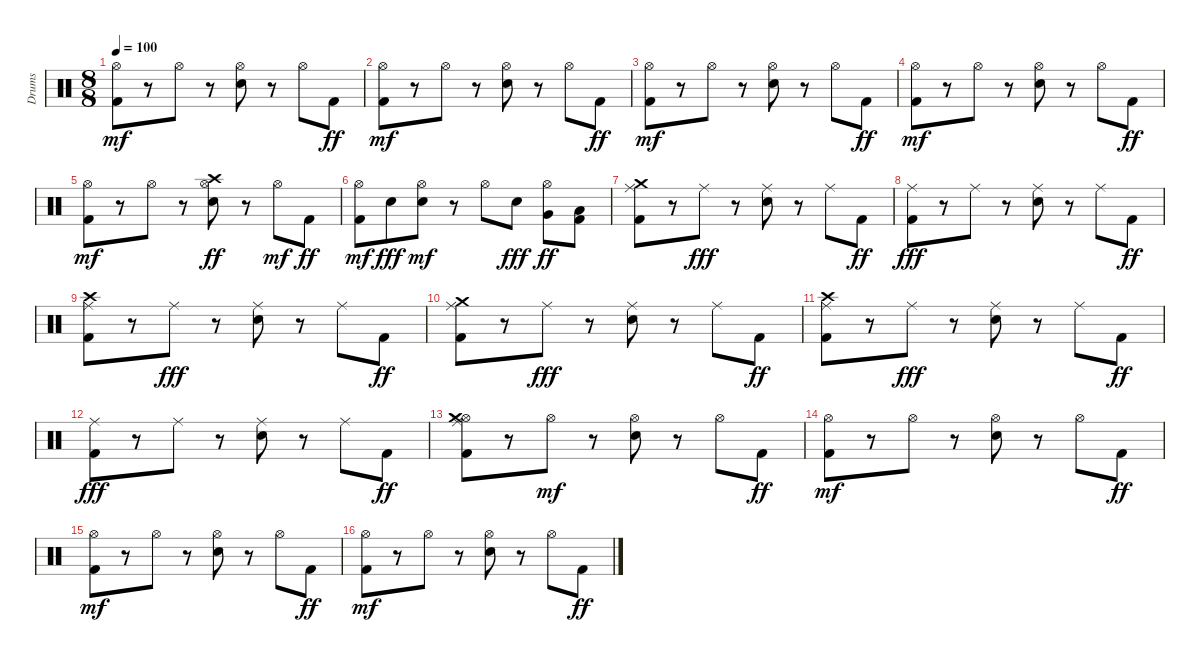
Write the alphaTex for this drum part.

\track ("Drums" "Drums") {instrument percussion}
\staff {score}
\articulation defaults
\ts (8 8)
\tempo 100
\clef neutral
\ks c
("Kick (hit) 2" "Hi-Hat (open)").8{dy mf} r.8 "Hi-Hat (open)".8 r.8 ("Snare (hit) 2" "Hi-Hat (open)").8 r.8 "Hi-Hat (open)".8 "Kick (hit) 2".8{dy ff} |
("Kick (hit) 2" "Hi-Hat (open)").8{dy mf} r.8 "Hi-Hat (open)".8 r.8 ("Snare (hit) 2" "Hi-Hat (open)").8 r.8 "Hi-Hat (open)".8 "Kick (hit) 2".8{dy ff} |
("Kick (hit) 2" "Hi-Hat (open)").8{dy mf} r.8 "Hi-Hat (open)".8 r.8 ("Snare (hit) 2" "Hi-Hat (open)").8 r.8 "Hi-Hat (open)".8 "Kick (hit) 2".8{dy ff} |
("Kick (hit) 2" "Hi-Hat (open)").8{dy mf} r.8 "Hi-Hat (open)".8 r.8 ("Snare (hit) 2" "Hi-Hat (open)").8 r.8 "Hi-Hat (open)".8 "Kick (hit) 2".8{dy ff} |
("Kick (hit) 2" "Hi-Hat (open)").8{dy mf} r.8 "Hi-Hat (open)".8 r.8 ("Snare (hit) 2" "Hi-Hat (open)" "Crash high (hit)").8{dy ff} r.8 "Hi-Hat (open)".8{dy mf} "Kick (hit) 2".8{dy ff} |
("Kick (hit) 2" "Hi-Hat (open)").8{dy mf} "Snare (hit) 2".8{dy fff} ("Snare (hit) 2" "Hi-Hat (open)").8{dy mf} r.8 "Hi-Hat (open)".8 "Snare (hit) 2".8{dy fff} ("Hi-Hat (open)" "Very Low Tom (hit)").8{dy ff} ("Kick (hit) 2" "Low Floor Tom (hit)").8 |
("Kick (hit) 2" "Ride (middle)" "Crash medium (hit)").8 r.8 "Ride (middle)".8{dy fff} r.8 ("Snare (hit) 2" "Ride (middle)").8 r.8 "Ride (middle)".8 "Kick (hit) 2".8{dy ff} |
("Kick (hit) 2" "Ride (middle)").8{dy fff} r.8 "Ride (middle)".8 r.8 ("Snare (hit) 2" "Ride (middle)").8 r.8 "Ride (middle)".8 "Kick (hit) 2".8{dy ff} |
("Kick (hit) 2" "Ride (middle)" "Crash high (hit)").8 r.8 "Ride (middle)".8{dy fff} r.8 ("Snare (hit) 2" "Ride (middle)").8 r.8 "Ride (middle)".8 "Kick (hit) 2".8{dy ff} |
("Kick (hit) 2" "Ride (middle)" "Crash medium (hit)").8 r.8 "Ride (middle)".8{dy fff} r.8 ("Snare (hit) 2" "Ride (middle)").8 r.8 "Ride (middle)".8 "Kick (hit) 2".8{dy ff} |
("Kick (hit) 2" "Ride (middle)" "Crash high (hit)").8 r.8 "Ride (middle)".8{dy fff} r.8 ("Snare (hit) 2" "Ride (middle)").8 r.8 "Ride (middle)".8 "Kick (hit) 2".8{dy ff} |
("Kick (hit) 2" "Ride (middle)").8{dy fff} r.8 "Ride (middle)".8 r.8 ("Snare (hit) 2" "Ride (middle)").8 r.8 "Ride (middle)".8 "Kick (hit) 2".8{dy ff} |
("Kick (hit) 2" "Hi-Hat (open)" "Ride (middle)" "Crash medium (hit)").8 r.8 "Hi-Hat (open)".8{dy mf} r.8 ("Snare (hit) 2" "Hi-Hat (open)").8 r.8 "Hi-Hat (open)".8 "Kick (hit) 2".8{dy ff} |
("Kick (hit) 2" "Hi-Hat (open)").8{dy mf} r.8 "Hi-Hat (open)".8 r.8 ("Snare (hit) 2" "Hi-Hat (open)").8 r.8 "Hi-Hat (open)".8 "Kick (hit) 2".8{dy ff} |
("Kick (hit) 2" "Hi-Hat (open)").8{dy mf} r.8 "Hi-Hat (open)".8 r.8 ("Snare (hit) 2" "Hi-Hat (open)").8 r.8 "Hi-Hat (open)".8 "Kick (hit) 2".8{dy ff} |
("Kick (hit) 2" "Hi-Hat (open)").8{dy mf} r.8 "Hi-Hat (open)".8 r.8 ("Snare (hit) 2" "Hi-Hat (open)").8 r.8 "Hi-Hat (open)".8 "Kick (hit) 2".8{dy ff}
